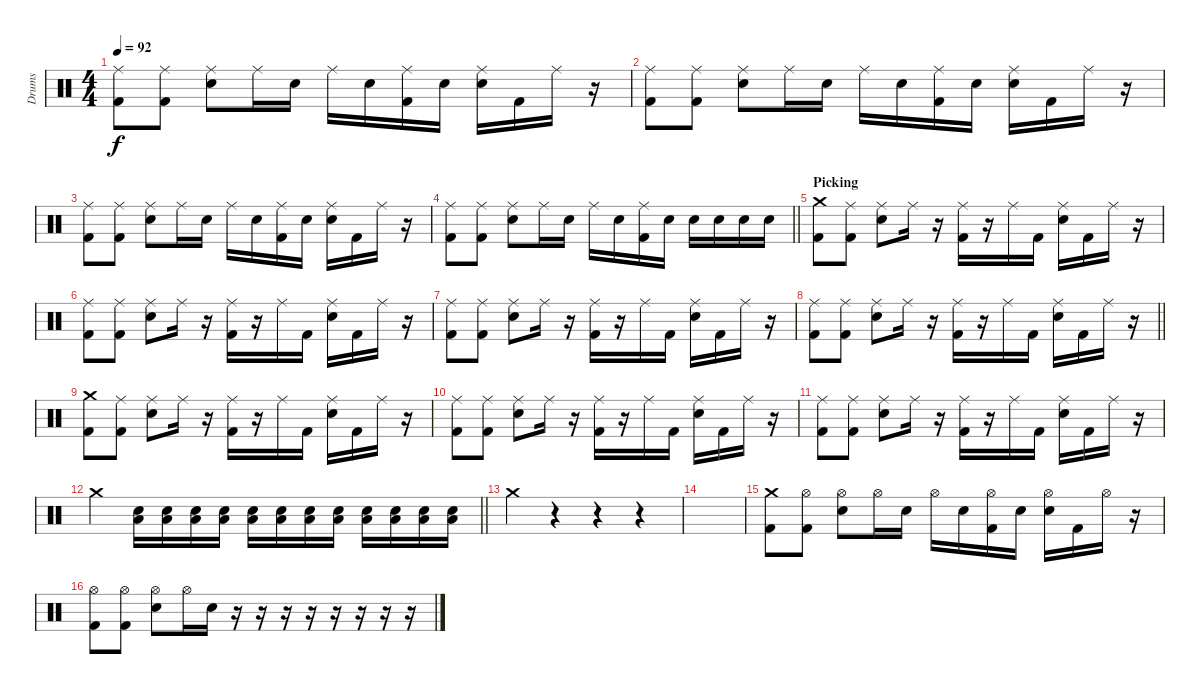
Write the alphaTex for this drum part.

\track ("Drums" "Drums") {instrument percussion}
\staff {score}
\articulation defaults
\ts (4 4)
\tempo 92
\clef neutral
\ks c
("Ride (middle)" "Kick (hit) 2").8{dy f} ("Ride (middle)" "Kick (hit) 2").8 ("Ride (middle)" "Snare (hit) 2").8 "Ride (middle)".16 "Snare (hit) 2".16 "Ride (middle)".16 "Snare (hit) 2".16 ("Ride (middle)" "Kick (hit) 2").16 "Snare (hit) 2".16 ("Ride (middle)" "Snare (hit) 2").16 "Kick (hit) 2".16 "Ride (middle)".16 r.16 |
("Ride (middle)" "Kick (hit) 2").8 ("Ride (middle)" "Kick (hit) 2").8 ("Ride (middle)" "Snare (hit) 2").8 "Ride (middle)".16 "Snare (hit) 2".16 "Ride (middle)".16 "Snare (hit) 2".16 ("Ride (middle)" "Kick (hit) 2").16 "Snare (hit) 2".16 ("Ride (middle)" "Snare (hit) 2").16 "Kick (hit) 2".16 "Ride (middle)".16 r.16 |
("Ride (middle)" "Kick (hit) 2").8 ("Ride (middle)" "Kick (hit) 2").8 ("Ride (middle)" "Snare (hit) 2").8 "Ride (middle)".16 "Snare (hit) 2".16 "Ride (middle)".16 "Snare (hit) 2".16 ("Ride (middle)" "Kick (hit) 2").16 "Snare (hit) 2".16 ("Ride (middle)" "Snare (hit) 2").16 "Kick (hit) 2".16 "Ride (middle)".16 r.16 |
\barLineRight lightlight
("Ride (middle)" "Kick (hit) 2").8 ("Ride (middle)" "Kick (hit) 2").8 ("Ride (middle)" "Snare (hit) 2").8 "Ride (middle)".16 "Snare (hit) 2".16 "Ride (middle)".16 "Snare (hit) 2".16 ("Ride (middle)" "Kick (hit) 2").16 "Snare (hit) 2".16 "Snare (hit) 2".16 "Snare (hit) 2".16 "Snare (hit) 2".16 "Snare (hit) 2".16 |
\section ("" "Picking")
("Crash medium (hit)" "Kick (hit) 2").8 ("Ride (middle)" "Kick (hit) 2").8 ("Ride (middle)" "Snare (hit) 2").8 "Ride (middle)".16 r.16 ("Ride (middle)" "Kick (hit) 2").16 r.16 "Ride (middle)".16 "Kick (hit) 2".16 ("Ride (middle)" "Snare (hit) 2").16 "Kick (hit) 2".16 "Ride (middle)".16 r.16 |
("Ride (middle)" "Kick (hit) 2").8 ("Ride (middle)" "Kick (hit) 2").8 ("Ride (middle)" "Snare (hit) 2").8 "Ride (middle)".16 r.16 ("Ride (middle)" "Kick (hit) 2").16 r.16 "Ride (middle)".16 "Kick (hit) 2".16 ("Ride (middle)" "Snare (hit) 2").16 "Kick (hit) 2".16 "Ride (middle)".16 r.16 |
("Ride (middle)" "Kick (hit) 2").8 ("Ride (middle)" "Kick (hit) 2").8 ("Ride (middle)" "Snare (hit) 2").8 "Ride (middle)".16 r.16 ("Ride (middle)" "Kick (hit) 2").16 r.16 "Ride (middle)".16 "Kick (hit) 2".16 ("Ride (middle)" "Snare (hit) 2").16 "Kick (hit) 2".16 "Ride (middle)".16 r.16 |
\barLineRight lightlight
("Ride (middle)" "Kick (hit) 2").8 ("Ride (middle)" "Kick (hit) 2").8 ("Ride (middle)" "Snare (hit) 2").8 "Ride (middle)".16 r.16 ("Ride (middle)" "Kick (hit) 2").16 r.16 "Ride (middle)".16 "Kick (hit) 2".16 ("Ride (middle)" "Snare (hit) 2").16 "Kick (hit) 2".16 "Ride (middle)".16 r.16 |
("Crash medium (hit)" "Kick (hit) 2").8 ("Ride (middle)" "Kick (hit) 2").8 ("Ride (middle)" "Snare (hit) 2").8 "Ride (middle)".16 r.16 ("Ride (middle)" "Kick (hit) 2").16 r.16 "Ride (middle)".16 "Kick (hit) 2".16 ("Ride (middle)" "Snare (hit) 2").16 "Kick (hit) 2".16 "Ride (middle)".16 r.16 |
("Ride (middle)" "Kick (hit) 2").8 ("Ride (middle)" "Kick (hit) 2").8 ("Ride (middle)" "Snare (hit) 2").8 "Ride (middle)".16 r.16 ("Ride (middle)" "Kick (hit) 2").16 r.16 "Ride (middle)".16 "Kick (hit) 2".16 ("Ride (middle)" "Snare (hit) 2").16 "Kick (hit) 2".16 "Ride (middle)".16 r.16 |
("Ride (middle)" "Kick (hit) 2").8 ("Ride (middle)" "Kick (hit) 2").8 ("Ride (middle)" "Snare (hit) 2").8 "Ride (middle)".16 r.16 ("Ride (middle)" "Kick (hit) 2").16 r.16 "Ride (middle)".16 "Kick (hit) 2".16 ("Ride (middle)" "Snare (hit) 2").16 "Kick (hit) 2".16 "Ride (middle)".16 r.16 |
\barLineRight lightlight "Crash medium (hit)".4
("Snare (hit) 2" "Low Floor Tom (hit)").16 ("Snare (hit) 2" "Low Floor Tom (hit)").16 ("Snare (hit) 2" "Low Floor Tom (hit)").16 ("Snare (hit) 2" "Low Floor Tom (hit)").16 ("Snare (hit) 2" "Low Floor Tom (hit)").16 ("Snare (hit) 2" "Low Floor Tom (hit)").16 ("Snare (hit) 2" "Low Floor Tom (hit)").16 ("Snare (hit) 2" "Low Floor Tom (hit)").16 ("Snare (hit) 2" "Low Floor Tom (hit)").16 ("Snare (hit) 2" "Low Floor Tom (hit)").16 ("Snare (hit) 2" "Low Floor Tom (hit)").16 ("Snare (hit) 2" "Low Floor Tom (hit)").16 |
"Crash medium (hit)".4 r.4 r.4 r.4 |
|
("Crash medium (hit)" "Kick (hit) 2").8 ("Hi-Hat (open)" "Kick (hit) 2").8 ("Hi-Hat (open)" "Snare (hit) 2").8 "Hi-Hat (open)".16 "Snare (hit) 2".16 "Hi-Hat (open)".16 "Snare (hit) 2".16 ("Hi-Hat (open)" "Kick (hit) 2").16 "Snare (hit) 2".16 ("Hi-Hat (open)" "Snare (hit) 2").16 "Kick (hit) 2".16 "Hi-Hat (open)".16 r.16 |
("Hi-Hat (open)" "Kick (hit) 2").8 ("Hi-Hat (open)" "Kick (hit) 2").8 ("Hi-Hat (open)" "Snare (hit) 2").8 "Hi-Hat (open)".16 "Snare (hit) 2".16 r.16 r.16 r.16 r.16 r.16 r.16 r.16 r.16
